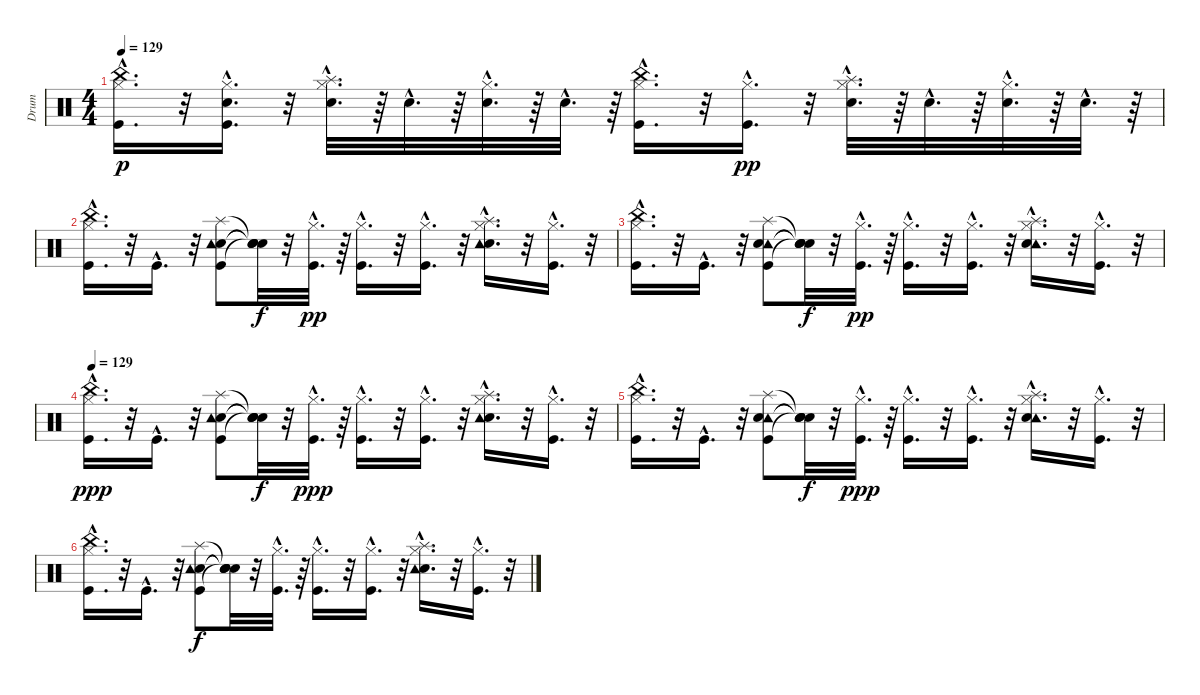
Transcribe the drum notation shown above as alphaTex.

\track ("Drum" "Drum") {instrument percussion}
\staff {score}
\articulation defaults
\ts (4 4)
\tempo 129
\clef neutral
\ks c
("China (hit)"{hac} "Hi-Hat (closed)"{hac} "Kick (hit)"{hac}).16{d dy p} r.32 ("Snare (hit) 2"{hac} "Kick (hit)"{hac} "Hi-Hat (closed)"{hac}).16{d} r.32 ("Splash (hit)"{hac} "Hi-Hat (closed)"{hac} "Snare (hit) 2"{hac}).32{d} r.64 "Snare (hit) 2"{hac}.32{d} r.64 ("Hi-Hat (closed)"{hac} "Snare (hit) 2"{hac}).32{d} r.64 "Snare (hit) 2"{hac}.32{d} r.64 ("China (hit)"{hac} "Kick (hit)"{hac} "Hi-Hat (closed)"{hac}).16{d} r.32 ("Kick (hit)"{hac} "Hi-Hat (closed)"{hac}).16{d dy pp} r.32 ("Splash (hit)"{hac} "Hi-Hat (closed)"{hac} "Snare (hit) 2"{hac}).32{d} r.64 "Snare (hit) 2"{hac}.32{d} r.64 ("Hi-Hat (closed)"{hac} "Snare (hit) 2"{hac}).32{d} r.64 "Snare (hit) 2"{hac}.32{d} r.64 |
("Kick (hit)"{hac} "Hi-Hat (closed)"{hac} "China (hit)"{hac}).16{d} r.32 "Kick (hit)"{hac}.16{d} r.32 ("Snare (hit) 2" "Kick (hit)" "Tambourine (hit)" "Splash (hit)").8 ("Snare (hit)"{t} "Snare (hit)"{t} "Snare (hit)"{t} "Snare (hit)"{t}).32{dy f} r.32 ("Hi-Hat (closed)"{hac} "Kick (hit)"{hac}).32{d dy pp} r.64 ("Hi-Hat (closed)"{hac} "Kick (hit)"{hac}).16{d} r.32 ("Hi-Hat (closed)"{hac} "Kick (hit)"{hac}).16{d} r.32 ("Hi-Hat (closed)"{hac} "Snare (hit) 2"{hac} "Tambourine (hit)"{hac} "Splash (hit)"{hac}).16{d} r.32 ("Hi-Hat (closed)"{hac} "Kick (hit)"{hac}).16{d} r.32 |
("Hi-Hat (closed)"{hac} "Kick (hit)"{hac} "China (hit)"{hac}).16{d} r.32 "Kick (hit)"{hac}.16{d} r.32 ("Tambourine (hit)" "Kick (hit)" "Snare (hit) 2" "Splash (hit)").8 ("Snare (hit)"{t} "Snare (hit)"{t} "Snare (hit)"{t} "Snare (hit)"{t}).32{dy f} r.32 ("Kick (hit)"{hac} "Hi-Hat (closed)"{hac}).32{d dy pp} r.64 ("Kick (hit)"{hac} "Hi-Hat (closed)"{hac}).16{d} r.32 ("Kick (hit)"{hac} "Hi-Hat (closed)"{hac}).16{d} r.32 ("Tambourine (hit)"{hac} "Snare (hit) 2"{hac} "Hi-Hat (closed)"{hac} "Splash (hit)"{hac}).16{d} r.32 ("Kick (hit)"{hac} "Hi-Hat (closed)"{hac}).16{d} r.32 |
\tempo 129
("Kick (hit)"{hac} "Hi-Hat (closed)"{hac} "China (hit)"{hac}).16{d dy ppp} r.32 "Kick (hit)"{hac}.16{d} r.32 ("Snare (hit) 2" "Kick (hit)" "Tambourine (hit)" "Splash (hit)").8 ("Snare (hit)"{t} "Snare (hit)"{t} "Snare (hit)"{t} "Snare (hit)"{t}).32{dy f} r.32 ("Hi-Hat (closed)"{hac} "Kick (hit)"{hac}).32{d dy ppp} r.64 ("Hi-Hat (closed)"{hac} "Kick (hit)"{hac}).16{d} r.32 ("Hi-Hat (closed)"{hac} "Kick (hit)"{hac}).16{d} r.32 ("Hi-Hat (closed)"{hac} "Snare (hit) 2"{hac} "Tambourine (hit)"{hac} "Splash (hit)"{hac}).16{d} r.32 ("Hi-Hat (closed)"{hac} "Kick (hit)"{hac}).16{d} r.32 |
("Hi-Hat (closed)"{hac} "Kick (hit)"{hac} "China (hit)"{hac}).16{d} r.32 "Kick (hit)"{hac}.16{d} r.32 ("Tambourine (hit)" "Kick (hit)" "Snare (hit) 2" "Splash (hit)").8 ("Snare (hit)"{t} "Snare (hit)"{t} "Snare (hit)"{t} "Snare (hit)"{t}).32{dy f} r.32 ("Kick (hit)"{hac} "Hi-Hat (closed)"{hac}).32{d dy ppp} r.64 ("Kick (hit)"{hac} "Hi-Hat (closed)"{hac}).16{d} r.32 ("Kick (hit)"{hac} "Hi-Hat (closed)"{hac}).16{d} r.32 ("Tambourine (hit)"{hac} "Snare (hit) 2"{hac} "Hi-Hat (closed)"{hac} "Splash (hit)"{hac}).16{d} r.32 ("Kick (hit)"{hac} "Hi-Hat (closed)"{hac}).16{d} r.32 |
("Kick (hit)"{hac} "Hi-Hat (closed)"{hac} "China (hit)"{hac}).16{d} r.32 "Kick (hit)"{hac}.16{d} r.32 ("Snare (hit) 2" "Kick (hit)" "Tambourine (hit)" "Splash (hit)").8{dy f} ("Snare (hit)"{t} "Snare (hit)"{t} "Snare (hit)"{t} "Snare (hit)"{t}).32 r.32 ("Hi-Hat (closed)"{hac} "Kick (hit)"{hac}).32{d} r.64 ("Hi-Hat (closed)"{hac} "Kick (hit)"{hac}).16{d} r.32 ("Hi-Hat (closed)"{hac} "Kick (hit)"{hac}).16{d} r.32 ("Hi-Hat (closed)"{hac} "Snare (hit) 2"{hac} "Tambourine (hit)"{hac} "Splash (hit)"{hac}).16{d} r.32 ("Hi-Hat (closed)"{hac} "Kick (hit)"{hac}).16{d} r.32
